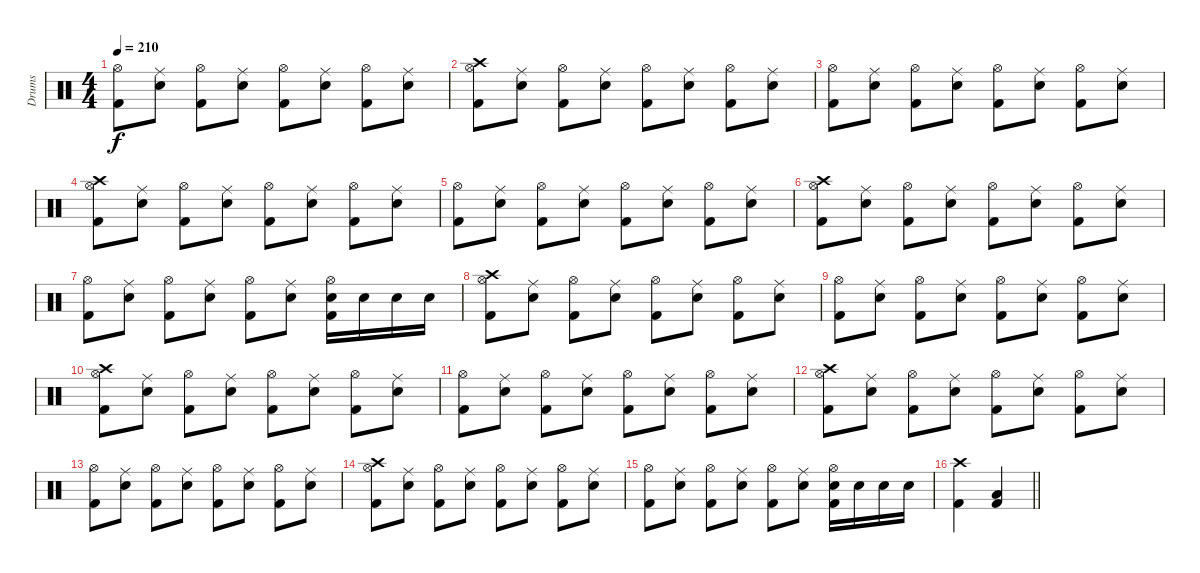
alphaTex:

\track ("Drums" "Drums") {instrument percussion}
\staff {score}
\articulation defaults
\ts (4 4)
\tempo 210
\clef neutral
\ks c
("Hi-Hat (open)" "Kick (hit) 2").8{dy f} ("Ride (middle)" "Snare (hit) 2").8 ("Hi-Hat (open)" "Kick (hit) 2").8 ("Ride (middle)" "Snare (hit) 2").8 ("Hi-Hat (open)" "Kick (hit) 2").8 ("Ride (middle)" "Snare (hit) 2").8 ("Hi-Hat (open)" "Kick (hit) 2").8 ("Ride (middle)" "Snare (hit) 2").8 |
("Crash high (hit)" "Hi-Hat (open)" "Kick (hit) 2").8 ("Ride (middle)" "Snare (hit) 2").8 ("Hi-Hat (open)" "Kick (hit) 2").8 ("Ride (middle)" "Snare (hit) 2").8 ("Hi-Hat (open)" "Kick (hit) 2").8 ("Ride (middle)" "Snare (hit) 2").8 ("Hi-Hat (open)" "Kick (hit) 2").8 ("Ride (middle)" "Snare (hit) 2").8 |
("Hi-Hat (open)" "Kick (hit) 2").8 ("Ride (middle)" "Snare (hit) 2").8 ("Hi-Hat (open)" "Kick (hit) 2").8 ("Ride (middle)" "Snare (hit) 2").8 ("Hi-Hat (open)" "Kick (hit) 2").8 ("Ride (middle)" "Snare (hit) 2").8 ("Hi-Hat (open)" "Kick (hit) 2").8 ("Ride (middle)" "Snare (hit) 2").8 |
("Crash high (hit)" "Hi-Hat (open)" "Kick (hit) 2").8 ("Ride (middle)" "Snare (hit) 2").8 ("Hi-Hat (open)" "Kick (hit) 2").8 ("Ride (middle)" "Snare (hit) 2").8 ("Hi-Hat (open)" "Kick (hit) 2").8 ("Ride (middle)" "Snare (hit) 2").8 ("Hi-Hat (open)" "Kick (hit) 2").8 ("Ride (middle)" "Snare (hit) 2").8 |
("Hi-Hat (open)" "Kick (hit) 2").8 ("Ride (middle)" "Snare (hit) 2").8 ("Hi-Hat (open)" "Kick (hit) 2").8 ("Ride (middle)" "Snare (hit) 2").8 ("Hi-Hat (open)" "Kick (hit) 2").8 ("Ride (middle)" "Snare (hit) 2").8 ("Hi-Hat (open)" "Kick (hit) 2").8 ("Ride (middle)" "Snare (hit) 2").8 |
("Crash high (hit)" "Hi-Hat (open)" "Kick (hit) 2").8 ("Ride (middle)" "Snare (hit) 2").8 ("Hi-Hat (open)" "Kick (hit) 2").8 ("Ride (middle)" "Snare (hit) 2").8 ("Hi-Hat (open)" "Kick (hit) 2").8 ("Ride (middle)" "Snare (hit) 2").8 ("Hi-Hat (open)" "Kick (hit) 2").8 ("Ride (middle)" "Snare (hit) 2").8 |
("Hi-Hat (open)" "Kick (hit) 2").8 ("Ride (middle)" "Snare (hit) 2").8 ("Hi-Hat (open)" "Kick (hit) 2").8 ("Ride (middle)" "Snare (hit) 2").8 ("Hi-Hat (open)" "Kick (hit) 2").8 ("Ride (middle)" "Snare (hit) 2").8 ("Hi-Hat (open)" "Snare (hit) 2" "Kick (hit) 2").16 "Snare (hit) 2".16 "Snare (hit) 2".16 "Snare (hit) 2".16 |
("Crash high (hit)" "Hi-Hat (open)" "Kick (hit) 2").8 ("Ride (middle)" "Snare (hit) 2").8 ("Hi-Hat (open)" "Kick (hit) 2").8 ("Ride (middle)" "Snare (hit) 2").8 ("Hi-Hat (open)" "Kick (hit) 2").8 ("Ride (middle)" "Snare (hit) 2").8 ("Hi-Hat (open)" "Kick (hit) 2").8 ("Ride (middle)" "Snare (hit) 2").8 |
("Hi-Hat (open)" "Kick (hit) 2").8 ("Ride (middle)" "Snare (hit) 2").8 ("Hi-Hat (open)" "Kick (hit) 2").8 ("Ride (middle)" "Snare (hit) 2").8 ("Hi-Hat (open)" "Kick (hit) 2").8 ("Ride (middle)" "Snare (hit) 2").8 ("Hi-Hat (open)" "Kick (hit) 2").8 ("Ride (middle)" "Snare (hit) 2").8 |
("Crash high (hit)" "Hi-Hat (open)" "Kick (hit) 2").8 ("Ride (middle)" "Snare (hit) 2").8 ("Hi-Hat (open)" "Kick (hit) 2").8 ("Ride (middle)" "Snare (hit) 2").8 ("Hi-Hat (open)" "Kick (hit) 2").8 ("Ride (middle)" "Snare (hit) 2").8 ("Hi-Hat (open)" "Kick (hit) 2").8 ("Ride (middle)" "Snare (hit) 2").8 |
("Hi-Hat (open)" "Kick (hit) 2").8 ("Ride (middle)" "Snare (hit) 2").8 ("Hi-Hat (open)" "Kick (hit) 2").8 ("Ride (middle)" "Snare (hit) 2").8 ("Hi-Hat (open)" "Kick (hit) 2").8 ("Ride (middle)" "Snare (hit) 2").8 ("Hi-Hat (open)" "Kick (hit) 2").8 ("Ride (middle)" "Snare (hit) 2").8 |
("Crash high (hit)" "Hi-Hat (open)" "Kick (hit) 2").8 ("Ride (middle)" "Snare (hit) 2").8 ("Hi-Hat (open)" "Kick (hit) 2").8 ("Ride (middle)" "Snare (hit) 2").8 ("Hi-Hat (open)" "Kick (hit) 2").8 ("Ride (middle)" "Snare (hit) 2").8 ("Hi-Hat (open)" "Kick (hit) 2").8 ("Ride (middle)" "Snare (hit) 2").8 |
("Hi-Hat (open)" "Kick (hit) 2").8 ("Ride (middle)" "Snare (hit) 2").8 ("Hi-Hat (open)" "Kick (hit) 2").8 ("Ride (middle)" "Snare (hit) 2").8 ("Hi-Hat (open)" "Kick (hit) 2").8 ("Ride (middle)" "Snare (hit) 2").8 ("Hi-Hat (open)" "Kick (hit) 2").8 ("Ride (middle)" "Snare (hit) 2").8 |
("Crash high (hit)" "Hi-Hat (open)" "Kick (hit) 2").8 ("Ride (middle)" "Snare (hit) 2").8 ("Hi-Hat (open)" "Kick (hit) 2").8 ("Ride (middle)" "Snare (hit) 2").8 ("Hi-Hat (open)" "Kick (hit) 2").8 ("Ride (middle)" "Snare (hit) 2").8 ("Hi-Hat (open)" "Kick (hit) 2").8 ("Ride (middle)" "Snare (hit) 2").8 |
("Hi-Hat (open)" "Kick (hit) 2").8 ("Ride (middle)" "Snare (hit) 2").8 ("Hi-Hat (open)" "Kick (hit) 2").8 ("Ride (middle)" "Snare (hit) 2").8 ("Hi-Hat (open)" "Kick (hit) 2").8 ("Ride (middle)" "Snare (hit) 2").8 ("Hi-Hat (open)" "Snare (hit) 2" "Kick (hit) 2").16 "Snare (hit) 2".16 "Snare (hit) 2".16 "Snare (hit) 2".16 |
\barLineRight lightlight
("Crash high (hit)" "Kick (hit) 2").4 ("Low Floor Tom (hit)" "Kick (hit) 2").4
